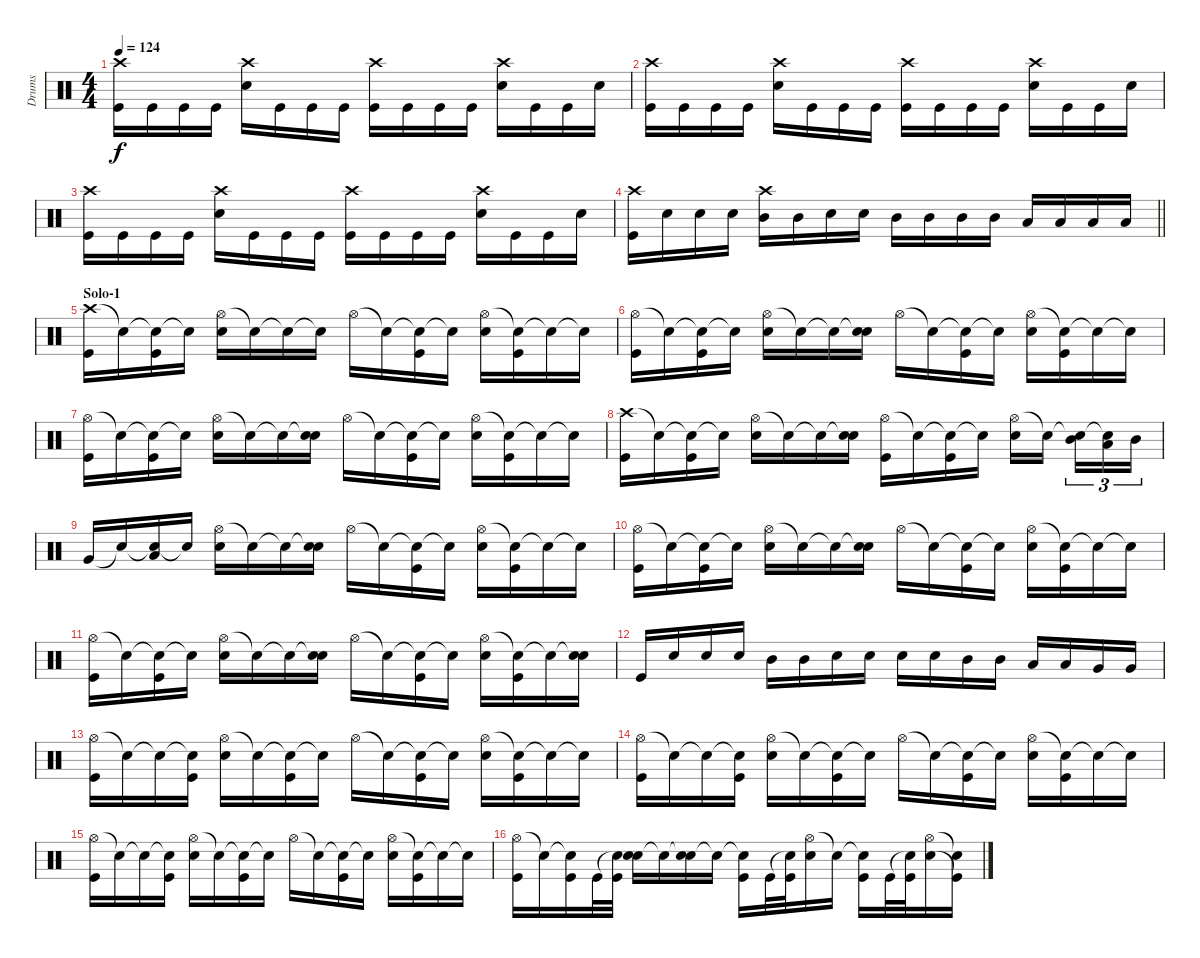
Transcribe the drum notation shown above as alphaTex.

\track ("Drums" "Drums") {instrument percussion}
\staff {score}
\articulation defaults
\ts (4 4)
\tempo 124
\clef neutral
\ks c
("Crash high (hit)" "Kick (hit)").16{dy f} "Kick (hit)".16 "Kick (hit)".16 "Kick (hit)".16 ("Crash high (hit)" "Electric Snare (hit)").16 "Kick (hit)".16 "Kick (hit)".16 "Kick (hit)".16 ("Crash high (hit)" "Kick (hit)").16 "Kick (hit)".16 "Kick (hit)".16 "Kick (hit)".16 ("Crash high (hit)" "Electric Snare (hit)").16 "Kick (hit)".16 "Kick (hit)".16 "Electric Snare (hit)".16 |
("Crash high (hit)" "Kick (hit)").16 "Kick (hit)".16 "Kick (hit)".16 "Kick (hit)".16 ("Crash high (hit)" "Electric Snare (hit)").16 "Kick (hit)".16 "Kick (hit)".16 "Kick (hit)".16 ("Crash high (hit)" "Kick (hit)").16 "Kick (hit)".16 "Kick (hit)".16 "Kick (hit)".16 ("Crash high (hit)" "Electric Snare (hit)").16 "Kick (hit)".16 "Kick (hit)".16 "Electric Snare (hit)".16 |
("Crash high (hit)" "Kick (hit)").16 "Kick (hit)".16 "Kick (hit)".16 "Kick (hit)".16 ("Crash high (hit)" "Electric Snare (hit)").16 "Kick (hit)".16 "Kick (hit)".16 "Kick (hit)".16 ("Crash high (hit)" "Kick (hit)").16 "Kick (hit)".16 "Kick (hit)".16 "Kick (hit)".16 ("Crash high (hit)" "Electric Snare (hit)").16 "Kick (hit)".16 "Kick (hit)".16 "Electric Snare (hit)".16 |
\barLineRight lightlight
("Crash high (hit)" "Kick (hit)").16 "Electric Snare (hit)".16 "Electric Snare (hit)".16 "Electric Snare (hit)".16 ("Crash high (hit)" "Mid Tom (hit)").16 "Mid Tom (hit)".16 "Electric Snare (hit)".16 "Electric Snare (hit)".16 "Mid Tom (hit)".16 "Mid Tom (hit)".16 "Mid Tom (hit)".16 "Mid Tom (hit)".16 "Low Tom (hit)".16 "Low Tom (hit)".16 "Low Tom (hit)".16 "Low Tom (hit)".16 |
\section ("" "Solo-1")
("Crash high (hit)" "Kick (hit)").16 "Snare (hit)"{t}.16 ("Snare (hit)"{t} "Kick (hit)").16 "Snare (hit)"{t}.16 ("Hi-Hat (open)" "Electric Snare (hit)").16 "Snare (hit)"{t}.16 "Snare (hit)"{t}.16 "Snare (hit)"{t}.16 "Hi-Hat (open)".16 "Snare (hit)"{t}.16 ("Snare (hit)"{t} "Kick (hit)").16 "Snare (hit)"{t}.16 ("Hi-Hat (open)" "Electric Snare (hit)").16 ("Snare (hit)"{t} "Kick (hit)").16 "Snare (hit)"{t}.16 "Snare (hit)"{t}.16 |
("Hi-Hat (open)" "Kick (hit)").16 "Snare (hit)"{t}.16 ("Snare (hit)"{t} "Kick (hit)").16 "Snare (hit)"{t}.16 ("Hi-Hat (open)" "Electric Snare (hit)").16 "Snare (hit)"{t}.16 "Snare (hit)"{t}.16 ("Snare (hit)"{t} "Electric Snare (hit)").16 "Hi-Hat (open)".16 "Snare (hit)"{t}.16 ("Snare (hit)"{t} "Kick (hit)").16 "Snare (hit)"{t}.16 ("Hi-Hat (open)" "Electric Snare (hit)").16 ("Snare (hit)"{t} "Kick (hit)").16 "Snare (hit)"{t}.16 "Snare (hit)"{t}.16 |
("Hi-Hat (open)" "Kick (hit)").16 "Snare (hit)"{t}.16 ("Snare (hit)"{t} "Kick (hit)").16 "Snare (hit)"{t}.16 ("Hi-Hat (open)" "Electric Snare (hit)").16 "Snare (hit)"{t}.16 "Snare (hit)"{t}.16 ("Snare (hit)"{t} "Electric Snare (hit)").16 "Hi-Hat (open)".16 "Snare (hit)"{t}.16 ("Snare (hit)"{t} "Kick (hit)").16 "Snare (hit)"{t}.16 ("Hi-Hat (open)" "Electric Snare (hit)").16 ("Snare (hit)"{t} "Kick (hit)").16 "Snare (hit)"{t}.16 "Snare (hit)"{t}.16 |
("Crash high (hit)" "Kick (hit)").16 "Snare (hit)"{t}.16 ("Snare (hit)"{t} "Kick (hit)").16 "Snare (hit)"{t}.16 ("Hi-Hat (open)" "Electric Snare (hit)").16 "Snare (hit)"{t}.16 "Snare (hit)"{t}.16 ("Snare (hit)"{t} "Electric Snare (hit)").16 ("Hi-Hat (open)" "Kick (hit)").16 "Snare (hit)"{t}.16 ("Snare (hit)"{t} "Kick (hit)").16 "Snare (hit)"{t}.16 ("Hi-Hat (open)" "Electric Snare (hit)").16 "Snare (hit)"{t}.16 ("Snare (hit)"{t} "Mid Tom (hit)").16{tu (3 2)} ("Snare (hit)"{t} "Low Tom (hit)").16{tu (3 2)} "Mid Tom (hit)".16{tu (3 2)} |
"Very Low Tom (hit)".16 "Snare (hit)"{t}.16 ("Snare (hit)"{t} "Low Floor Tom (hit)").16 "Snare (hit)"{t}.16 ("Hi-Hat (open)" "Electric Snare (hit)").16 "Snare (hit)"{t}.16 "Snare (hit)"{t}.16 ("Snare (hit)"{t} "Electric Snare (hit)").16 "Hi-Hat (open)".16 "Snare (hit)"{t}.16 ("Snare (hit)"{t} "Kick (hit)").16 "Snare (hit)"{t}.16 ("Hi-Hat (open)" "Electric Snare (hit)").16 ("Snare (hit)"{t} "Kick (hit)").16 "Snare (hit)"{t}.16 "Snare (hit)"{t}.16 |
("Hi-Hat (open)" "Kick (hit)").16 "Snare (hit)"{t}.16 ("Snare (hit)"{t} "Kick (hit)").16 "Snare (hit)"{t}.16 ("Hi-Hat (open)" "Electric Snare (hit)").16 "Snare (hit)"{t}.16 "Snare (hit)"{t}.16 ("Snare (hit)"{t} "Electric Snare (hit)").16 "Hi-Hat (open)".16 "Snare (hit)"{t}.16 ("Snare (hit)"{t} "Kick (hit)").16 "Snare (hit)"{t}.16 ("Hi-Hat (open)" "Electric Snare (hit)").16 ("Snare (hit)"{t} "Kick (hit)").16 "Snare (hit)"{t}.16 "Snare (hit)"{t}.16 |
("Hi-Hat (open)" "Kick (hit)").16 "Snare (hit)"{t}.16 ("Snare (hit)"{t} "Kick (hit)").16 "Snare (hit)"{t}.16 ("Hi-Hat (open)" "Electric Snare (hit)").16 "Snare (hit)"{t}.16 "Snare (hit)"{t}.16 ("Snare (hit)"{t} "Electric Snare (hit)").16 "Hi-Hat (open)".16 "Snare (hit)"{t}.16 ("Snare (hit)"{t} "Kick (hit)").16 "Snare (hit)"{t}.16 ("Hi-Hat (open)" "Electric Snare (hit)").16 ("Snare (hit)"{t} "Kick (hit)").16 "Snare (hit)"{t}.16 ("Snare (hit)"{t} "Electric Snare (hit)").16 |
"Kick (hit)".16 "Electric Snare (hit)".16 "Electric Snare (hit)".16 "Electric Snare (hit)".16 "Mid Tom (hit)".16 "Mid Tom (hit)".16 "Electric Snare (hit)".16 "Electric Snare (hit)".16 "Electric Snare (hit)".16 "Electric Snare (hit)".16 "Mid Tom (hit)".16 "Mid Tom (hit)".16 "Low Tom (hit)".16 "Low Tom (hit)".16 "Very Low Tom (hit)".16 "Very Low Tom (hit)".16 |
("Hi-Hat (open)" "Kick (hit)").16 "Snare (hit)"{t}.16 "Snare (hit)"{t}.16 ("Snare (hit)"{t} "Kick (hit)").16 ("Hi-Hat (open)" "Electric Snare (hit)").16 "Snare (hit)"{t}.16 ("Snare (hit)"{t} "Kick (hit)").16 "Snare (hit)"{t}.16 "Hi-Hat (open)".16 "Snare (hit)"{t}.16 ("Snare (hit)"{t} "Kick (hit)").16 "Snare (hit)"{t}.16 ("Hi-Hat (open)" "Electric Snare (hit)").16 ("Snare (hit)"{t} "Kick (hit)").16 "Snare (hit)"{t}.16 "Snare (hit)"{t}.16 |
("Hi-Hat (open)" "Kick (hit)").16 "Snare (hit)"{t}.16 "Snare (hit)"{t}.16 ("Snare (hit)"{t} "Kick (hit)").16 ("Hi-Hat (open)" "Electric Snare (hit)").16 "Snare (hit)"{t}.16 ("Snare (hit)"{t} "Kick (hit)").16 "Snare (hit)"{t}.16 "Hi-Hat (open)".16 "Snare (hit)"{t}.16 ("Snare (hit)"{t} "Kick (hit)").16 "Snare (hit)"{t}.16 ("Hi-Hat (open)" "Electric Snare (hit)").16 ("Snare (hit)"{t} "Kick (hit)").16 "Snare (hit)"{t}.16 "Snare (hit)"{t}.16 |
("Hi-Hat (open)" "Kick (hit)").16 "Snare (hit)"{t}.16 "Snare (hit)"{t}.16 ("Snare (hit)"{t} "Kick (hit)").16 ("Hi-Hat (open)" "Electric Snare (hit)").16 "Snare (hit)"{t}.16 ("Snare (hit)"{t} "Kick (hit)").16 "Snare (hit)"{t}.16 "Hi-Hat (open)".16 "Snare (hit)"{t}.16 ("Snare (hit)"{t} "Kick (hit)").16 "Snare (hit)"{t}.16 ("Hi-Hat (open)" "Electric Snare (hit)").16 ("Snare (hit)"{t} "Kick (hit)").16 "Snare (hit)"{t}.16 "Snare (hit)"{t}.16 |
("Hi-Hat (open)" "Kick (hit)").16 "Snare (hit)"{t}.16 ("Snare (hit)"{t} "Kick (hit)").16 "Kick (hit)".32 ("Snare (hit)"{t} "Kick (hit)").32 ("Snare (hit)"{t} "Electric Snare (hit)").16 "Snare (hit)"{t}.16 ("Snare (hit)"{t} "Electric Snare (hit)").16 "Snare (hit)"{t}.16 ("Snare (hit)"{t} "Kick (hit)").16 "Kick (hit)".32 ("Snare (hit)"{t} "Kick (hit)").32 ("Hi-Hat (open)" "Electric Snare (hit)").16 "Snare (hit)"{t}.16 ("Snare (hit)"{t} "Kick (hit)").16 "Kick (hit)".32 ("Snare (hit)"{t} "Kick (hit)").32 ("Hi-Hat (open)" "Electric Snare (hit)").16 ("Snare (hit)"{t} "Kick (hit)"{t}).16
